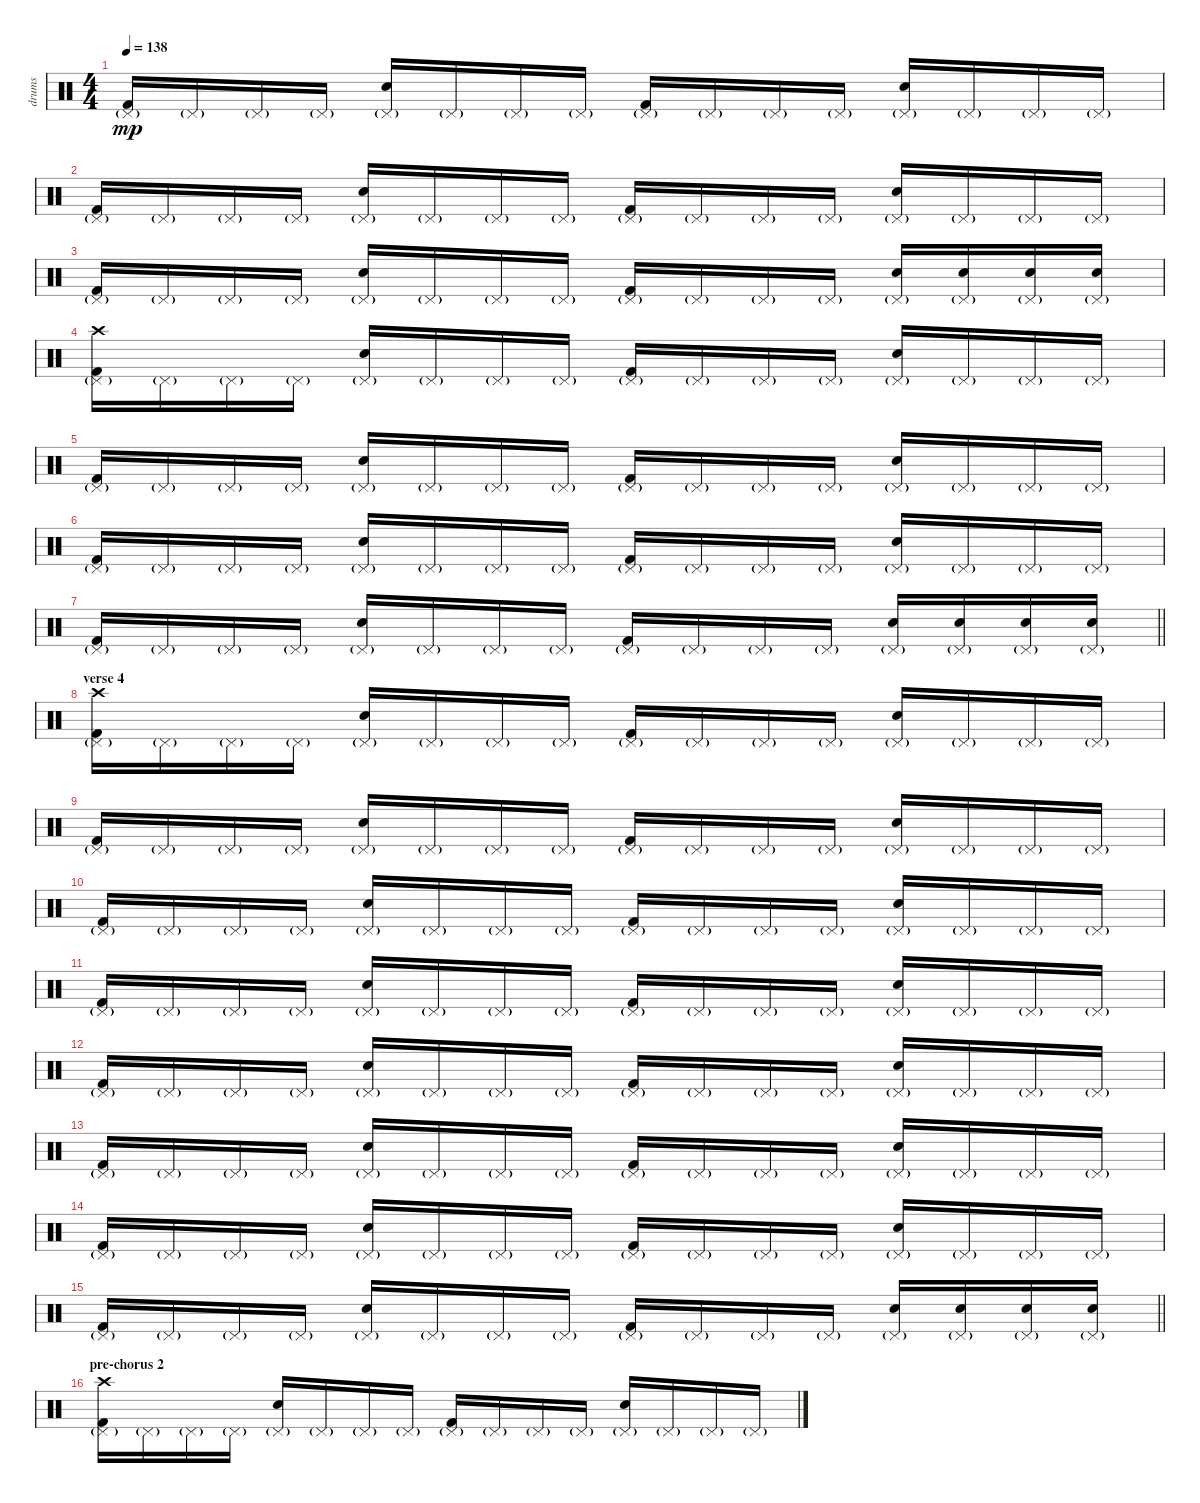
\track ("drums" "drums") {instrument percussion}
\staff {score}
\articulation defaults
\ts (4 4)
\tempo 138
\clef neutral
\ks c
("Kick (hit) 2" "Pedal Hi-Hat (hit)"{g}).16{dy mp} "Pedal Hi-Hat (hit)"{g}.16 "Pedal Hi-Hat (hit)"{g}.16 "Pedal Hi-Hat (hit)"{g}.16 ("Electric Snare (hit)" "Pedal Hi-Hat (hit)"{g}).16 "Pedal Hi-Hat (hit)"{g}.16 "Pedal Hi-Hat (hit)"{g}.16 "Pedal Hi-Hat (hit)"{g}.16 ("Kick (hit) 2" "Pedal Hi-Hat (hit)"{g}).16 "Pedal Hi-Hat (hit)"{g}.16 "Pedal Hi-Hat (hit)"{g}.16 "Pedal Hi-Hat (hit)"{g}.16 ("Electric Snare (hit)" "Pedal Hi-Hat (hit)"{g}).16 "Pedal Hi-Hat (hit)"{g}.16 "Pedal Hi-Hat (hit)"{g}.16 "Pedal Hi-Hat (hit)"{g}.16 |
("Kick (hit) 2" "Pedal Hi-Hat (hit)"{g}).16 "Pedal Hi-Hat (hit)"{g}.16 "Pedal Hi-Hat (hit)"{g}.16 "Pedal Hi-Hat (hit)"{g}.16 ("Electric Snare (hit)" "Pedal Hi-Hat (hit)"{g}).16 "Pedal Hi-Hat (hit)"{g}.16 "Pedal Hi-Hat (hit)"{g}.16 "Pedal Hi-Hat (hit)"{g}.16 ("Kick (hit) 2" "Pedal Hi-Hat (hit)"{g}).16 "Pedal Hi-Hat (hit)"{g}.16 "Pedal Hi-Hat (hit)"{g}.16 "Pedal Hi-Hat (hit)"{g}.16 ("Electric Snare (hit)" "Pedal Hi-Hat (hit)"{g}).16 "Pedal Hi-Hat (hit)"{g}.16 "Pedal Hi-Hat (hit)"{g}.16 "Pedal Hi-Hat (hit)"{g}.16 |
("Kick (hit) 2" "Pedal Hi-Hat (hit)"{g}).16 "Pedal Hi-Hat (hit)"{g}.16 "Pedal Hi-Hat (hit)"{g}.16 "Pedal Hi-Hat (hit)"{g}.16 ("Electric Snare (hit)" "Pedal Hi-Hat (hit)"{g}).16 "Pedal Hi-Hat (hit)"{g}.16 "Pedal Hi-Hat (hit)"{g}.16 "Pedal Hi-Hat (hit)"{g}.16 ("Kick (hit) 2" "Pedal Hi-Hat (hit)"{g}).16 "Pedal Hi-Hat (hit)"{g}.16 "Pedal Hi-Hat (hit)"{g}.16 "Pedal Hi-Hat (hit)"{g}.16 ("Electric Snare (hit)" "Pedal Hi-Hat (hit)"{g}).16 ("Electric Snare (hit)" "Pedal Hi-Hat (hit)"{g}).16 ("Electric Snare (hit)" "Pedal Hi-Hat (hit)"{g}).16 ("Electric Snare (hit)" "Pedal Hi-Hat (hit)"{g}).16 |
("Kick (hit) 2" "Pedal Hi-Hat (hit)"{g} "Crash high (hit)").16 "Pedal Hi-Hat (hit)"{g}.16 "Pedal Hi-Hat (hit)"{g}.16 "Pedal Hi-Hat (hit)"{g}.16 ("Electric Snare (hit)" "Pedal Hi-Hat (hit)"{g}).16 "Pedal Hi-Hat (hit)"{g}.16 "Pedal Hi-Hat (hit)"{g}.16 "Pedal Hi-Hat (hit)"{g}.16 ("Kick (hit) 2" "Pedal Hi-Hat (hit)"{g}).16 "Pedal Hi-Hat (hit)"{g}.16 "Pedal Hi-Hat (hit)"{g}.16 "Pedal Hi-Hat (hit)"{g}.16 ("Electric Snare (hit)" "Pedal Hi-Hat (hit)"{g}).16 "Pedal Hi-Hat (hit)"{g}.16 "Pedal Hi-Hat (hit)"{g}.16 "Pedal Hi-Hat (hit)"{g}.16 |
("Kick (hit) 2" "Pedal Hi-Hat (hit)"{g}).16 "Pedal Hi-Hat (hit)"{g}.16 "Pedal Hi-Hat (hit)"{g}.16 "Pedal Hi-Hat (hit)"{g}.16 ("Electric Snare (hit)" "Pedal Hi-Hat (hit)"{g}).16 "Pedal Hi-Hat (hit)"{g}.16 "Pedal Hi-Hat (hit)"{g}.16 "Pedal Hi-Hat (hit)"{g}.16 ("Kick (hit) 2" "Pedal Hi-Hat (hit)"{g}).16 "Pedal Hi-Hat (hit)"{g}.16 "Pedal Hi-Hat (hit)"{g}.16 "Pedal Hi-Hat (hit)"{g}.16 ("Electric Snare (hit)" "Pedal Hi-Hat (hit)"{g}).16 "Pedal Hi-Hat (hit)"{g}.16 "Pedal Hi-Hat (hit)"{g}.16 "Pedal Hi-Hat (hit)"{g}.16 |
("Kick (hit) 2" "Pedal Hi-Hat (hit)"{g}).16 "Pedal Hi-Hat (hit)"{g}.16 "Pedal Hi-Hat (hit)"{g}.16 "Pedal Hi-Hat (hit)"{g}.16 ("Electric Snare (hit)" "Pedal Hi-Hat (hit)"{g}).16 "Pedal Hi-Hat (hit)"{g}.16 "Pedal Hi-Hat (hit)"{g}.16 "Pedal Hi-Hat (hit)"{g}.16 ("Kick (hit) 2" "Pedal Hi-Hat (hit)"{g}).16 "Pedal Hi-Hat (hit)"{g}.16 "Pedal Hi-Hat (hit)"{g}.16 "Pedal Hi-Hat (hit)"{g}.16 ("Electric Snare (hit)" "Pedal Hi-Hat (hit)"{g}).16 "Pedal Hi-Hat (hit)"{g}.16 "Pedal Hi-Hat (hit)"{g}.16 "Pedal Hi-Hat (hit)"{g}.16 |
\barLineRight lightlight
("Kick (hit) 2" "Pedal Hi-Hat (hit)"{g}).16 "Pedal Hi-Hat (hit)"{g}.16 "Pedal Hi-Hat (hit)"{g}.16 "Pedal Hi-Hat (hit)"{g}.16 ("Electric Snare (hit)" "Pedal Hi-Hat (hit)"{g}).16 "Pedal Hi-Hat (hit)"{g}.16 "Pedal Hi-Hat (hit)"{g}.16 "Pedal Hi-Hat (hit)"{g}.16 ("Kick (hit) 2" "Pedal Hi-Hat (hit)"{g}).16 "Pedal Hi-Hat (hit)"{g}.16 "Pedal Hi-Hat (hit)"{g}.16 "Pedal Hi-Hat (hit)"{g}.16 ("Electric Snare (hit)" "Pedal Hi-Hat (hit)"{g}).16 ("Electric Snare (hit)" "Pedal Hi-Hat (hit)"{g}).16 ("Electric Snare (hit)" "Pedal Hi-Hat (hit)"{g}).16 ("Electric Snare (hit)" "Pedal Hi-Hat (hit)"{g}).16 |
\section ("" "verse 4")
("Kick (hit) 2" "Pedal Hi-Hat (hit)"{g} "Crash high (hit)").16 "Pedal Hi-Hat (hit)"{g}.16 "Pedal Hi-Hat (hit)"{g}.16 "Pedal Hi-Hat (hit)"{g}.16 ("Electric Snare (hit)" "Pedal Hi-Hat (hit)"{g}).16 "Pedal Hi-Hat (hit)"{g}.16 "Pedal Hi-Hat (hit)"{g}.16 "Pedal Hi-Hat (hit)"{g}.16 ("Kick (hit) 2" "Pedal Hi-Hat (hit)"{g}).16 "Pedal Hi-Hat (hit)"{g}.16 "Pedal Hi-Hat (hit)"{g}.16 "Pedal Hi-Hat (hit)"{g}.16 ("Electric Snare (hit)" "Pedal Hi-Hat (hit)"{g}).16 "Pedal Hi-Hat (hit)"{g}.16 "Pedal Hi-Hat (hit)"{g}.16 "Pedal Hi-Hat (hit)"{g}.16 |
("Kick (hit) 2" "Pedal Hi-Hat (hit)"{g}).16 "Pedal Hi-Hat (hit)"{g}.16 "Pedal Hi-Hat (hit)"{g}.16 "Pedal Hi-Hat (hit)"{g}.16 ("Electric Snare (hit)" "Pedal Hi-Hat (hit)"{g}).16 "Pedal Hi-Hat (hit)"{g}.16 "Pedal Hi-Hat (hit)"{g}.16 "Pedal Hi-Hat (hit)"{g}.16 ("Kick (hit) 2" "Pedal Hi-Hat (hit)"{g}).16 "Pedal Hi-Hat (hit)"{g}.16 "Pedal Hi-Hat (hit)"{g}.16 "Pedal Hi-Hat (hit)"{g}.16 ("Electric Snare (hit)" "Pedal Hi-Hat (hit)"{g}).16 "Pedal Hi-Hat (hit)"{g}.16 "Pedal Hi-Hat (hit)"{g}.16 "Pedal Hi-Hat (hit)"{g}.16 |
("Kick (hit) 2" "Pedal Hi-Hat (hit)"{g}).16 "Pedal Hi-Hat (hit)"{g}.16 "Pedal Hi-Hat (hit)"{g}.16 "Pedal Hi-Hat (hit)"{g}.16 ("Electric Snare (hit)" "Pedal Hi-Hat (hit)"{g}).16 "Pedal Hi-Hat (hit)"{g}.16 "Pedal Hi-Hat (hit)"{g}.16 "Pedal Hi-Hat (hit)"{g}.16 ("Kick (hit) 2" "Pedal Hi-Hat (hit)"{g}).16 "Pedal Hi-Hat (hit)"{g}.16 "Pedal Hi-Hat (hit)"{g}.16 "Pedal Hi-Hat (hit)"{g}.16 ("Electric Snare (hit)" "Pedal Hi-Hat (hit)"{g}).16 "Pedal Hi-Hat (hit)"{g}.16 "Pedal Hi-Hat (hit)"{g}.16 "Pedal Hi-Hat (hit)"{g}.16 |
("Kick (hit) 2" "Pedal Hi-Hat (hit)"{g}).16 "Pedal Hi-Hat (hit)"{g}.16 "Pedal Hi-Hat (hit)"{g}.16 "Pedal Hi-Hat (hit)"{g}.16 ("Electric Snare (hit)" "Pedal Hi-Hat (hit)"{g}).16 "Pedal Hi-Hat (hit)"{g}.16 "Pedal Hi-Hat (hit)"{g}.16 "Pedal Hi-Hat (hit)"{g}.16 ("Kick (hit) 2" "Pedal Hi-Hat (hit)"{g}).16 "Pedal Hi-Hat (hit)"{g}.16 "Pedal Hi-Hat (hit)"{g}.16 "Pedal Hi-Hat (hit)"{g}.16 ("Electric Snare (hit)" "Pedal Hi-Hat (hit)"{g}).16 "Pedal Hi-Hat (hit)"{g}.16 "Pedal Hi-Hat (hit)"{g}.16 "Pedal Hi-Hat (hit)"{g}.16 |
("Kick (hit) 2" "Pedal Hi-Hat (hit)"{g}).16 "Pedal Hi-Hat (hit)"{g}.16 "Pedal Hi-Hat (hit)"{g}.16 "Pedal Hi-Hat (hit)"{g}.16 ("Electric Snare (hit)" "Pedal Hi-Hat (hit)"{g}).16 "Pedal Hi-Hat (hit)"{g}.16 "Pedal Hi-Hat (hit)"{g}.16 "Pedal Hi-Hat (hit)"{g}.16 ("Kick (hit) 2" "Pedal Hi-Hat (hit)"{g}).16 "Pedal Hi-Hat (hit)"{g}.16 "Pedal Hi-Hat (hit)"{g}.16 "Pedal Hi-Hat (hit)"{g}.16 ("Electric Snare (hit)" "Pedal Hi-Hat (hit)"{g}).16 "Pedal Hi-Hat (hit)"{g}.16 "Pedal Hi-Hat (hit)"{g}.16 "Pedal Hi-Hat (hit)"{g}.16 |
("Kick (hit) 2" "Pedal Hi-Hat (hit)"{g}).16 "Pedal Hi-Hat (hit)"{g}.16 "Pedal Hi-Hat (hit)"{g}.16 "Pedal Hi-Hat (hit)"{g}.16 ("Electric Snare (hit)" "Pedal Hi-Hat (hit)"{g}).16 "Pedal Hi-Hat (hit)"{g}.16 "Pedal Hi-Hat (hit)"{g}.16 "Pedal Hi-Hat (hit)"{g}.16 ("Kick (hit) 2" "Pedal Hi-Hat (hit)"{g}).16 "Pedal Hi-Hat (hit)"{g}.16 "Pedal Hi-Hat (hit)"{g}.16 "Pedal Hi-Hat (hit)"{g}.16 ("Electric Snare (hit)" "Pedal Hi-Hat (hit)"{g}).16 "Pedal Hi-Hat (hit)"{g}.16 "Pedal Hi-Hat (hit)"{g}.16 "Pedal Hi-Hat (hit)"{g}.16 |
("Kick (hit) 2" "Pedal Hi-Hat (hit)"{g}).16 "Pedal Hi-Hat (hit)"{g}.16 "Pedal Hi-Hat (hit)"{g}.16 "Pedal Hi-Hat (hit)"{g}.16 ("Electric Snare (hit)" "Pedal Hi-Hat (hit)"{g}).16 "Pedal Hi-Hat (hit)"{g}.16 "Pedal Hi-Hat (hit)"{g}.16 "Pedal Hi-Hat (hit)"{g}.16 ("Kick (hit) 2" "Pedal Hi-Hat (hit)"{g}).16 "Pedal Hi-Hat (hit)"{g}.16 "Pedal Hi-Hat (hit)"{g}.16 "Pedal Hi-Hat (hit)"{g}.16 ("Electric Snare (hit)" "Pedal Hi-Hat (hit)"{g}).16 "Pedal Hi-Hat (hit)"{g}.16 "Pedal Hi-Hat (hit)"{g}.16 "Pedal Hi-Hat (hit)"{g}.16 |
\barLineRight lightlight
("Kick (hit) 2" "Pedal Hi-Hat (hit)"{g}).16 "Pedal Hi-Hat (hit)"{g}.16 "Pedal Hi-Hat (hit)"{g}.16 "Pedal Hi-Hat (hit)"{g}.16 ("Electric Snare (hit)" "Pedal Hi-Hat (hit)"{g}).16 "Pedal Hi-Hat (hit)"{g}.16 "Pedal Hi-Hat (hit)"{g}.16 "Pedal Hi-Hat (hit)"{g}.16 ("Kick (hit) 2" "Pedal Hi-Hat (hit)"{g}).16 "Pedal Hi-Hat (hit)"{g}.16 "Pedal Hi-Hat (hit)"{g}.16 "Pedal Hi-Hat (hit)"{g}.16 ("Electric Snare (hit)" "Pedal Hi-Hat (hit)"{g}).16 ("Electric Snare (hit)" "Pedal Hi-Hat (hit)"{g}).16 ("Electric Snare (hit)" "Pedal Hi-Hat (hit)"{g}).16 ("Electric Snare (hit)" "Pedal Hi-Hat (hit)"{g}).16 |
\section ("" "pre-chorus 2")
("Kick (hit) 2" "Pedal Hi-Hat (hit)"{g} "Crash high (hit)").16 "Pedal Hi-Hat (hit)"{g}.16 "Pedal Hi-Hat (hit)"{g}.16 "Pedal Hi-Hat (hit)"{g}.16 ("Electric Snare (hit)" "Pedal Hi-Hat (hit)"{g}).16 "Pedal Hi-Hat (hit)"{g}.16 "Pedal Hi-Hat (hit)"{g}.16 "Pedal Hi-Hat (hit)"{g}.16 ("Kick (hit) 2" "Pedal Hi-Hat (hit)"{g}).16 "Pedal Hi-Hat (hit)"{g}.16 "Pedal Hi-Hat (hit)"{g}.16 "Pedal Hi-Hat (hit)"{g}.16 ("Electric Snare (hit)" "Pedal Hi-Hat (hit)"{g}).16 "Pedal Hi-Hat (hit)"{g}.16 "Pedal Hi-Hat (hit)"{g}.16 "Pedal Hi-Hat (hit)"{g}.16
